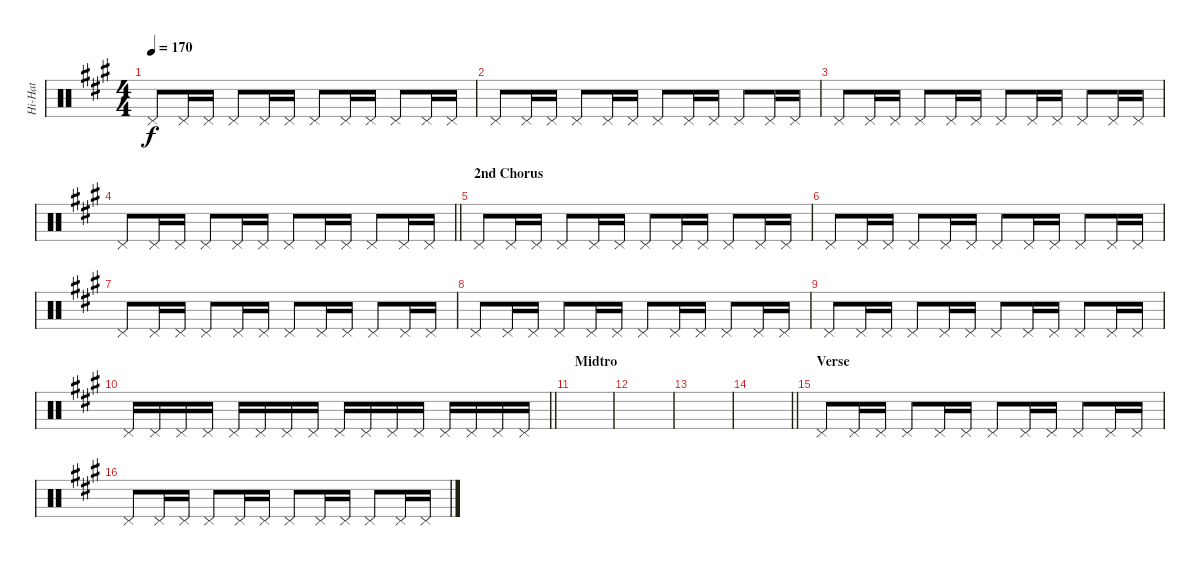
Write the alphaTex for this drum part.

\track ("Hi-Hat" "Hi-Hat") {instrument percussion}
\staff {score}
\articulation defaults
\ts (4 4)
\tempo 170
\clef neutral
\ks a "Pedal Hi-Hat (hit)".8{dy f} "Pedal Hi-Hat (hit)".16 "Pedal Hi-Hat (hit)".16 "Pedal Hi-Hat (hit)".8 "Pedal Hi-Hat (hit)".16 "Pedal Hi-Hat (hit)".16 "Pedal Hi-Hat (hit)".8 "Pedal Hi-Hat (hit)".16 "Pedal Hi-Hat (hit)".16 "Pedal Hi-Hat (hit)".8 "Pedal Hi-Hat (hit)".16 "Pedal Hi-Hat (hit)".16
|
"Pedal Hi-Hat (hit)".8 "Pedal Hi-Hat (hit)".16 "Pedal Hi-Hat (hit)".16 "Pedal Hi-Hat (hit)".8 "Pedal Hi-Hat (hit)".16 "Pedal Hi-Hat (hit)".16 "Pedal Hi-Hat (hit)".8 "Pedal Hi-Hat (hit)".16 "Pedal Hi-Hat (hit)".16 "Pedal Hi-Hat (hit)".8 "Pedal Hi-Hat (hit)".16 "Pedal Hi-Hat (hit)".16 |
"Pedal Hi-Hat (hit)".8 "Pedal Hi-Hat (hit)".16 "Pedal Hi-Hat (hit)".16 "Pedal Hi-Hat (hit)".8 "Pedal Hi-Hat (hit)".16 "Pedal Hi-Hat (hit)".16 "Pedal Hi-Hat (hit)".8 "Pedal Hi-Hat (hit)".16 "Pedal Hi-Hat (hit)".16 "Pedal Hi-Hat (hit)".8 "Pedal Hi-Hat (hit)".16 "Pedal Hi-Hat (hit)".16 |
\barLineRight lightlight "Pedal Hi-Hat (hit)".8 "Pedal Hi-Hat (hit)".16 "Pedal Hi-Hat (hit)".16 "Pedal Hi-Hat (hit)".8 "Pedal Hi-Hat (hit)".16 "Pedal Hi-Hat (hit)".16 "Pedal Hi-Hat (hit)".8 "Pedal Hi-Hat (hit)".16 "Pedal Hi-Hat (hit)".16 "Pedal Hi-Hat (hit)".8 "Pedal Hi-Hat (hit)".16 "Pedal Hi-Hat (hit)".16
|
\section ("" "2nd Chorus")
"Pedal Hi-Hat (hit)".8 "Pedal Hi-Hat (hit)".16 "Pedal Hi-Hat (hit)".16 "Pedal Hi-Hat (hit)".8 "Pedal Hi-Hat (hit)".16 "Pedal Hi-Hat (hit)".16 "Pedal Hi-Hat (hit)".8 "Pedal Hi-Hat (hit)".16 "Pedal Hi-Hat (hit)".16 "Pedal Hi-Hat (hit)".8 "Pedal Hi-Hat (hit)".16 "Pedal Hi-Hat (hit)".16 |
"Pedal Hi-Hat (hit)".8 "Pedal Hi-Hat (hit)".16 "Pedal Hi-Hat (hit)".16 "Pedal Hi-Hat (hit)".8 "Pedal Hi-Hat (hit)".16 "Pedal Hi-Hat (hit)".16 "Pedal Hi-Hat (hit)".8 "Pedal Hi-Hat (hit)".16 "Pedal Hi-Hat (hit)".16 "Pedal Hi-Hat (hit)".8 "Pedal Hi-Hat (hit)".16 "Pedal Hi-Hat (hit)".16 |
"Pedal Hi-Hat (hit)".8 "Pedal Hi-Hat (hit)".16 "Pedal Hi-Hat (hit)".16 "Pedal Hi-Hat (hit)".8 "Pedal Hi-Hat (hit)".16 "Pedal Hi-Hat (hit)".16 "Pedal Hi-Hat (hit)".8 "Pedal Hi-Hat (hit)".16 "Pedal Hi-Hat (hit)".16 "Pedal Hi-Hat (hit)".8 "Pedal Hi-Hat (hit)".16 "Pedal Hi-Hat (hit)".16 |
"Pedal Hi-Hat (hit)".8 "Pedal Hi-Hat (hit)".16 "Pedal Hi-Hat (hit)".16 "Pedal Hi-Hat (hit)".8 "Pedal Hi-Hat (hit)".16 "Pedal Hi-Hat (hit)".16 "Pedal Hi-Hat (hit)".8 "Pedal Hi-Hat (hit)".16 "Pedal Hi-Hat (hit)".16 "Pedal Hi-Hat (hit)".8 "Pedal Hi-Hat (hit)".16 "Pedal Hi-Hat (hit)".16 |
"Pedal Hi-Hat (hit)".8 "Pedal Hi-Hat (hit)".16 "Pedal Hi-Hat (hit)".16 "Pedal Hi-Hat (hit)".8 "Pedal Hi-Hat (hit)".16 "Pedal Hi-Hat (hit)".16 "Pedal Hi-Hat (hit)".8 "Pedal Hi-Hat (hit)".16 "Pedal Hi-Hat (hit)".16 "Pedal Hi-Hat (hit)".8 "Pedal Hi-Hat (hit)".16 "Pedal Hi-Hat (hit)".16 |
\barLineRight lightlight "Pedal Hi-Hat (hit)".16 "Pedal Hi-Hat (hit)".16 "Pedal Hi-Hat (hit)".16 "Pedal Hi-Hat (hit)".16 "Pedal Hi-Hat (hit)".16 "Pedal Hi-Hat (hit)".16 "Pedal Hi-Hat (hit)".16 "Pedal Hi-Hat (hit)".16 "Pedal Hi-Hat (hit)".16 "Pedal Hi-Hat (hit)".16 "Pedal Hi-Hat (hit)".16 "Pedal Hi-Hat (hit)".16 "Pedal Hi-Hat (hit)".16 "Pedal Hi-Hat (hit)".16 "Pedal Hi-Hat (hit)".16 "Pedal Hi-Hat (hit)".16
|
\section ("" "Midtro")
|
|
|
\barLineRight lightlight
|
\section ("" "Verse")
"Pedal Hi-Hat (hit)".8 "Pedal Hi-Hat (hit)".16 "Pedal Hi-Hat (hit)".16 "Pedal Hi-Hat (hit)".8 "Pedal Hi-Hat (hit)".16 "Pedal Hi-Hat (hit)".16 "Pedal Hi-Hat (hit)".8 "Pedal Hi-Hat (hit)".16 "Pedal Hi-Hat (hit)".16 "Pedal Hi-Hat (hit)".8 "Pedal Hi-Hat (hit)".16 "Pedal Hi-Hat (hit)".16 |
"Pedal Hi-Hat (hit)".8 "Pedal Hi-Hat (hit)".16 "Pedal Hi-Hat (hit)".16 "Pedal Hi-Hat (hit)".8 "Pedal Hi-Hat (hit)".16 "Pedal Hi-Hat (hit)".16 "Pedal Hi-Hat (hit)".8 "Pedal Hi-Hat (hit)".16 "Pedal Hi-Hat (hit)".16 "Pedal Hi-Hat (hit)".8 "Pedal Hi-Hat (hit)".16 "Pedal Hi-Hat (hit)".16
